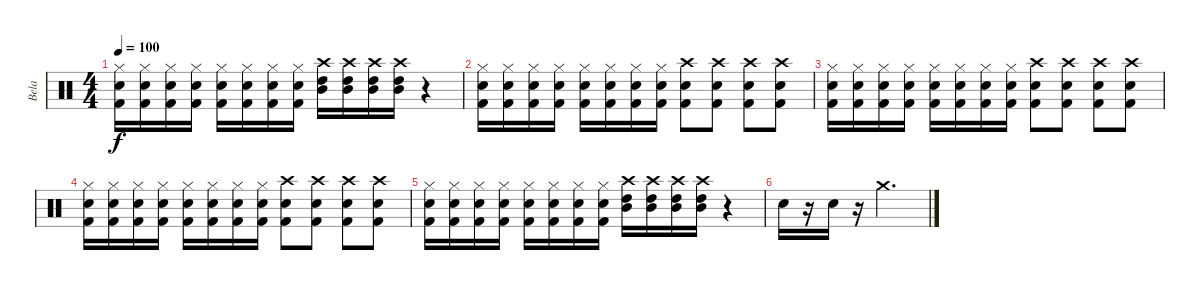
\track ("Bela" "Bela") {instrument percussion}
\staff {score}
\articulation defaults
\ts (4 4)
\tempo 100
\clef neutral
\ks c
("Hi-Hat (closed)" "Snare (hit) 2" "Kick (hit) 2").16{dy f} ("Hi-Hat (closed)" "Snare (hit) 2" "Kick (hit) 2").16 ("Hi-Hat (closed)" "Snare (hit) 2" "Kick (hit) 2").16 ("Hi-Hat (closed)" "Snare (hit) 2" "Kick (hit) 2").16 ("Hi-Hat (closed)" "Snare (hit) 2" "Kick (hit) 2").16 ("Hi-Hat (closed)" "Snare (hit) 2" "Kick (hit) 2").16 ("Hi-Hat (closed)" "Snare (hit) 2" "Kick (hit) 2").16 ("Hi-Hat (closed)" "Snare (hit) 2" "Kick (hit) 2").16 ("Crash high (hit)" "High Tom (hit)" "Mid Tom (hit)").16 ("Crash high (hit)" "High Tom (hit)" "Mid Tom (hit)").16 ("Crash high (hit)" "High Tom (hit)" "Mid Tom (hit)").16 ("Crash high (hit)" "High Tom (hit)" "Mid Tom (hit)").16 r.4 |
("Hi-Hat (closed)" "Snare (hit) 2" "Kick (hit) 2").16 ("Hi-Hat (closed)" "Snare (hit) 2" "Kick (hit) 2").16 ("Hi-Hat (closed)" "Snare (hit) 2" "Kick (hit) 2").16 ("Hi-Hat (closed)" "Snare (hit) 2" "Kick (hit) 2").16 ("Hi-Hat (closed)" "Snare (hit) 2" "Kick (hit) 2").16 ("Hi-Hat (closed)" "Snare (hit) 2" "Kick (hit) 2").16 ("Hi-Hat (closed)" "Snare (hit) 2" "Kick (hit) 2").16 ("Hi-Hat (closed)" "Snare (hit) 2" "Kick (hit) 2").16 ("Crash high (hit)" "Snare (hit) 2" "Kick (hit) 2").8 ("Crash high (hit)" "Snare (hit) 2" "Kick (hit) 2").8 ("Crash high (hit)" "Snare (hit) 2" "Kick (hit) 2").8 ("Crash high (hit)" "Snare (hit) 2" "Kick (hit) 2").8 |
("Hi-Hat (closed)" "Snare (hit) 2" "Kick (hit) 2").16 ("Hi-Hat (closed)" "Snare (hit) 2" "Kick (hit) 2").16 ("Hi-Hat (closed)" "Snare (hit) 2" "Kick (hit) 2").16 ("Hi-Hat (closed)" "Snare (hit) 2" "Kick (hit) 2").16 ("Hi-Hat (closed)" "Snare (hit) 2" "Kick (hit) 2").16 ("Hi-Hat (closed)" "Snare (hit) 2" "Kick (hit) 2").16 ("Hi-Hat (closed)" "Snare (hit) 2" "Kick (hit) 2").16 ("Hi-Hat (closed)" "Snare (hit) 2" "Kick (hit) 2").16 ("Crash high (hit)" "Snare (hit) 2" "Kick (hit) 2").8 ("Crash high (hit)" "Snare (hit) 2" "Kick (hit) 2").8 ("Crash high (hit)" "Snare (hit) 2" "Kick (hit) 2").8 ("Crash high (hit)" "Snare (hit) 2" "Kick (hit) 2").8 |
("Hi-Hat (closed)" "Snare (hit) 2" "Kick (hit) 2").16 ("Hi-Hat (closed)" "Snare (hit) 2" "Kick (hit) 2").16 ("Hi-Hat (closed)" "Snare (hit) 2" "Kick (hit) 2").16 ("Hi-Hat (closed)" "Snare (hit) 2" "Kick (hit) 2").16 ("Hi-Hat (closed)" "Snare (hit) 2" "Kick (hit) 2").16 ("Hi-Hat (closed)" "Snare (hit) 2" "Kick (hit) 2").16 ("Hi-Hat (closed)" "Snare (hit) 2" "Kick (hit) 2").16 ("Hi-Hat (closed)" "Snare (hit) 2" "Kick (hit) 2").16 ("Crash high (hit)" "Snare (hit) 2" "Kick (hit) 2").8 ("Crash high (hit)" "Snare (hit) 2" "Kick (hit) 2").8 ("Crash high (hit)" "Snare (hit) 2" "Kick (hit) 2").8 ("Crash high (hit)" "Snare (hit) 2" "Kick (hit) 2").8 |
("Hi-Hat (closed)" "Snare (hit) 2" "Kick (hit) 2").16 ("Hi-Hat (closed)" "Snare (hit) 2" "Kick (hit) 2").16 ("Hi-Hat (closed)" "Snare (hit) 2" "Kick (hit) 2").16 ("Hi-Hat (closed)" "Snare (hit) 2" "Kick (hit) 2").16 ("Hi-Hat (closed)" "Snare (hit) 2" "Kick (hit) 2").16 ("Hi-Hat (closed)" "Snare (hit) 2" "Kick (hit) 2").16 ("Hi-Hat (closed)" "Snare (hit) 2" "Kick (hit) 2").16 ("Hi-Hat (closed)" "Snare (hit) 2" "Kick (hit) 2").16 ("Crash high (hit)" "High Tom (hit)" "Mid Tom (hit)").16 ("Crash high (hit)" "High Tom (hit)" "Mid Tom (hit)").16 ("Crash high (hit)" "High Tom (hit)" "Mid Tom (hit)").16 ("Crash high (hit)" "High Tom (hit)" "Mid Tom (hit)").16 r.4 |
"Snare (hit) 2".16 r.16 "Snare (hit) 2".16 r.16 "Crash medium (hit)".2{d}
